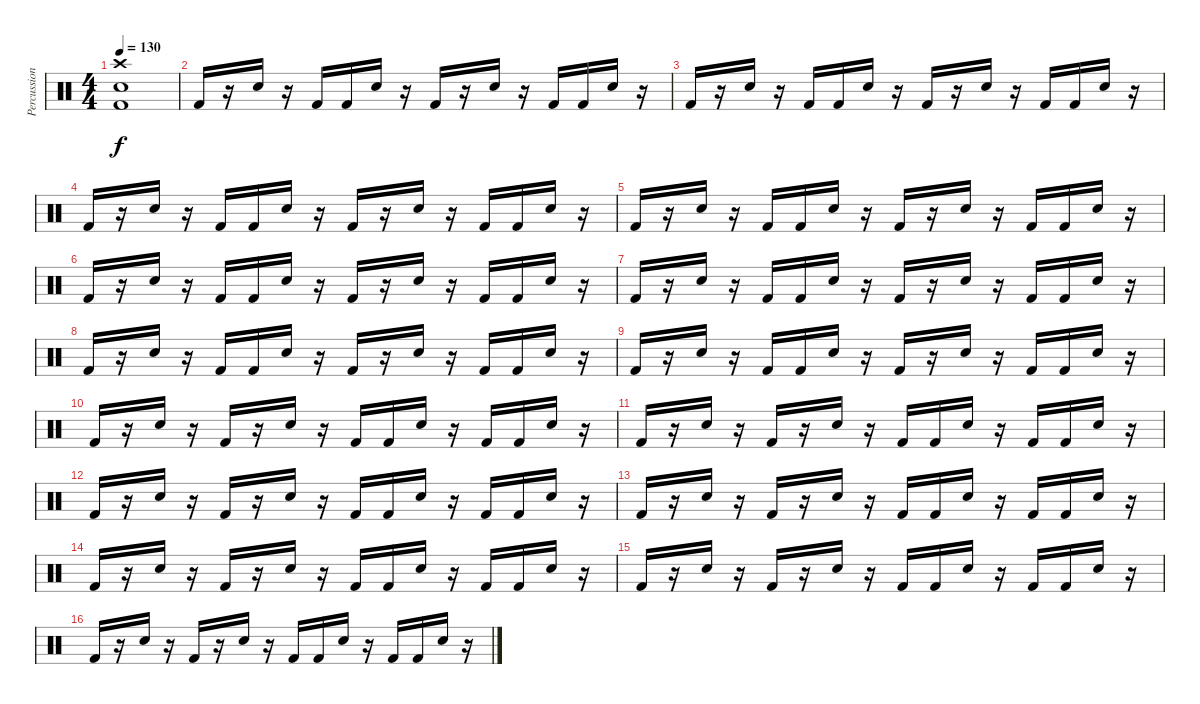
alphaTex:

\track ("Percussion" "Percussion") {instrument percussion}
\staff {score}
\articulation defaults
\ts (4 4)
\tempo 130
\clef neutral
\ks c
("Crash high (hit)" "Snare (hit) 2" "Kick (hit) 2").1{dy f} |
"Kick (hit) 2".16 r.16 "Snare (hit) 2".16 r.16 "Kick (hit) 2".16 "Kick (hit) 2".16 "Snare (hit) 2".16 r.16 "Kick (hit) 2".16 r.16 "Snare (hit) 2".16 r.16 "Kick (hit) 2".16 "Kick (hit) 2".16 "Snare (hit) 2".16 r.16 |
"Kick (hit) 2".16 r.16 "Snare (hit) 2".16 r.16 "Kick (hit) 2".16 "Kick (hit) 2".16 "Snare (hit) 2".16 r.16 "Kick (hit) 2".16 r.16 "Snare (hit) 2".16 r.16 "Kick (hit) 2".16 "Kick (hit) 2".16 "Snare (hit) 2".16 r.16 |
"Kick (hit) 2".16 r.16 "Snare (hit) 2".16 r.16 "Kick (hit) 2".16 "Kick (hit) 2".16 "Snare (hit) 2".16 r.16 "Kick (hit) 2".16 r.16 "Snare (hit) 2".16 r.16 "Kick (hit) 2".16 "Kick (hit) 2".16 "Snare (hit) 2".16 r.16 |
"Kick (hit) 2".16 r.16 "Snare (hit) 2".16 r.16 "Kick (hit) 2".16 "Kick (hit) 2".16 "Snare (hit) 2".16 r.16 "Kick (hit) 2".16 r.16 "Snare (hit) 2".16 r.16 "Kick (hit) 2".16 "Kick (hit) 2".16 "Snare (hit) 2".16 r.16 |
"Kick (hit) 2".16 r.16 "Snare (hit) 2".16 r.16 "Kick (hit) 2".16 "Kick (hit) 2".16 "Snare (hit) 2".16 r.16 "Kick (hit) 2".16 r.16 "Snare (hit) 2".16 r.16 "Kick (hit) 2".16 "Kick (hit) 2".16 "Snare (hit) 2".16 r.16 |
"Kick (hit) 2".16 r.16 "Snare (hit) 2".16 r.16 "Kick (hit) 2".16 "Kick (hit) 2".16 "Snare (hit) 2".16 r.16 "Kick (hit) 2".16 r.16 "Snare (hit) 2".16 r.16 "Kick (hit) 2".16 "Kick (hit) 2".16 "Snare (hit) 2".16 r.16 |
"Kick (hit) 2".16 r.16 "Snare (hit) 2".16 r.16 "Kick (hit) 2".16 "Kick (hit) 2".16 "Snare (hit) 2".16 r.16 "Kick (hit) 2".16 r.16 "Snare (hit) 2".16 r.16 "Kick (hit) 2".16 "Kick (hit) 2".16 "Snare (hit) 2".16 r.16 |
"Kick (hit) 2".16 r.16 "Snare (hit) 2".16 r.16 "Kick (hit) 2".16 "Kick (hit) 2".16 "Snare (hit) 2".16 r.16 "Kick (hit) 2".16 r.16 "Snare (hit) 2".16 r.16 "Kick (hit) 2".16 "Kick (hit) 2".16 "Snare (hit) 2".16 r.16 |
"Kick (hit) 2".16 r.16 "Snare (hit) 2".16 r.16 "Kick (hit) 2".16 r.16 "Snare (hit) 2".16 r.16 "Kick (hit) 2".16 "Kick (hit) 2".16 "Snare (hit) 2".16 r.16 "Kick (hit) 2".16 "Kick (hit) 2".16 "Snare (hit) 2".16 r.16 |
"Kick (hit) 2".16 r.16 "Snare (hit) 2".16 r.16 "Kick (hit) 2".16 r.16 "Snare (hit) 2".16 r.16 "Kick (hit) 2".16 "Kick (hit) 2".16 "Snare (hit) 2".16 r.16 "Kick (hit) 2".16 "Kick (hit) 2".16 "Snare (hit) 2".16 r.16 |
"Kick (hit) 2".16 r.16 "Snare (hit) 2".16 r.16 "Kick (hit) 2".16 r.16 "Snare (hit) 2".16 r.16 "Kick (hit) 2".16 "Kick (hit) 2".16 "Snare (hit) 2".16 r.16 "Kick (hit) 2".16 "Kick (hit) 2".16 "Snare (hit) 2".16 r.16 |
"Kick (hit) 2".16 r.16 "Snare (hit) 2".16 r.16 "Kick (hit) 2".16 r.16 "Snare (hit) 2".16 r.16 "Kick (hit) 2".16 "Kick (hit) 2".16 "Snare (hit) 2".16 r.16 "Kick (hit) 2".16 "Kick (hit) 2".16 "Snare (hit) 2".16 r.16 |
"Kick (hit) 2".16 r.16 "Snare (hit) 2".16 r.16 "Kick (hit) 2".16 r.16 "Snare (hit) 2".16 r.16 "Kick (hit) 2".16 "Kick (hit) 2".16 "Snare (hit) 2".16 r.16 "Kick (hit) 2".16 "Kick (hit) 2".16 "Snare (hit) 2".16 r.16 |
"Kick (hit) 2".16 r.16 "Snare (hit) 2".16 r.16 "Kick (hit) 2".16 r.16 "Snare (hit) 2".16 r.16 "Kick (hit) 2".16 "Kick (hit) 2".16 "Snare (hit) 2".16 r.16 "Kick (hit) 2".16 "Kick (hit) 2".16 "Snare (hit) 2".16 r.16 |
"Kick (hit) 2".16 r.16 "Snare (hit) 2".16 r.16 "Kick (hit) 2".16 r.16 "Snare (hit) 2".16 r.16 "Kick (hit) 2".16 "Kick (hit) 2".16 "Snare (hit) 2".16 r.16 "Kick (hit) 2".16 "Kick (hit) 2".16 "Snare (hit) 2".16 r.16
